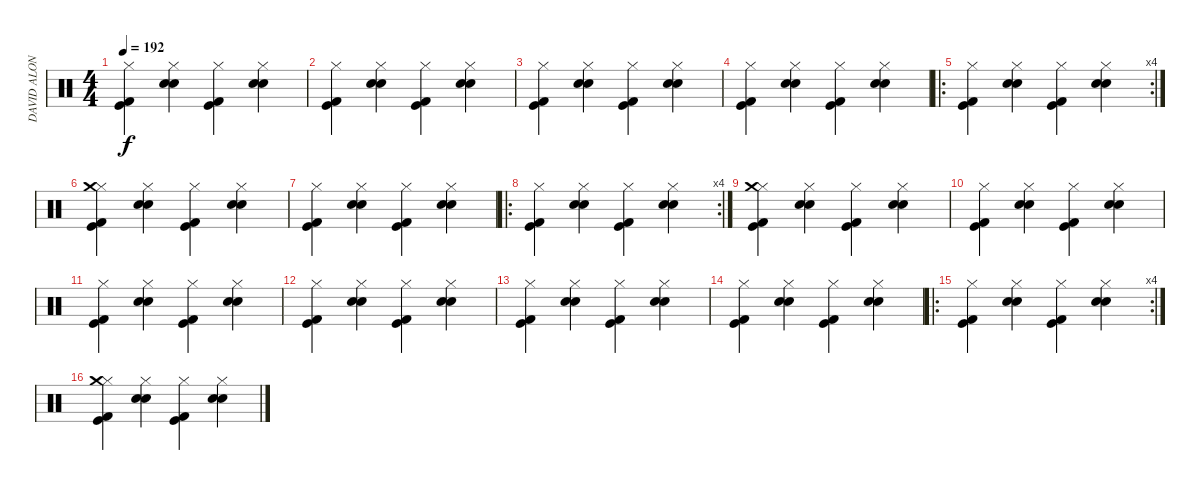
\track ("DAVID ALONSO" "DAVID ALON") {instrument percussion}
\staff {score}
\articulation defaults
\ts (4 4)
\tempo 192
\clef neutral
\ks c
("Kick (hit)" "Kick (hit) 2" "Hi-Hat (closed)").4{dy f} ("Electric Snare (hit)" "Snare (hit) 2" "Hi-Hat (closed)").4 ("Kick (hit)" "Kick (hit) 2" "Hi-Hat (closed)").4 ("Electric Snare (hit)" "Snare (hit) 2" "Hi-Hat (closed)").4 |
("Kick (hit)" "Kick (hit) 2" "Hi-Hat (closed)").4 ("Electric Snare (hit)" "Snare (hit) 2" "Hi-Hat (closed)").4 ("Kick (hit)" "Kick (hit) 2" "Hi-Hat (closed)").4 ("Electric Snare (hit)" "Snare (hit) 2" "Hi-Hat (closed)").4 |
("Kick (hit)" "Kick (hit) 2" "Hi-Hat (closed)").4 ("Electric Snare (hit)" "Snare (hit) 2" "Hi-Hat (closed)").4 ("Kick (hit)" "Kick (hit) 2" "Hi-Hat (closed)").4 ("Electric Snare (hit)" "Snare (hit) 2" "Hi-Hat (closed)").4 |
("Kick (hit)" "Kick (hit) 2" "Hi-Hat (closed)").4 ("Electric Snare (hit)" "Snare (hit) 2" "Hi-Hat (closed)").4 ("Kick (hit)" "Kick (hit) 2" "Hi-Hat (closed)").4 ("Electric Snare (hit)" "Snare (hit) 2" "Hi-Hat (closed)").4 |
\ro
\rc 4
("Kick (hit)" "Kick (hit) 2" "Hi-Hat (closed)").4 ("Electric Snare (hit)" "Snare (hit) 2" "Hi-Hat (closed)").4 ("Kick (hit)" "Kick (hit) 2" "Hi-Hat (closed)").4 ("Electric Snare (hit)" "Snare (hit) 2" "Hi-Hat (closed)").4 |
("Kick (hit)" "Kick (hit) 2" "Hi-Hat (closed)" "Crash medium (hit)").4 ("Electric Snare (hit)" "Snare (hit) 2" "Hi-Hat (closed)").4 ("Kick (hit)" "Kick (hit) 2" "Hi-Hat (closed)").4 ("Electric Snare (hit)" "Snare (hit) 2" "Hi-Hat (closed)").4 |
("Kick (hit)" "Kick (hit) 2" "Hi-Hat (closed)").4 ("Electric Snare (hit)" "Snare (hit) 2" "Hi-Hat (closed)").4 ("Kick (hit)" "Kick (hit) 2" "Hi-Hat (closed)").4 ("Electric Snare (hit)" "Snare (hit) 2" "Hi-Hat (closed)").4 |
\ro
\rc 4
("Kick (hit)" "Kick (hit) 2" "Hi-Hat (closed)").4 ("Electric Snare (hit)" "Snare (hit) 2" "Hi-Hat (closed)").4 ("Kick (hit)" "Kick (hit) 2" "Hi-Hat (closed)").4 ("Electric Snare (hit)" "Snare (hit) 2" "Hi-Hat (closed)").4 |
("Kick (hit)" "Kick (hit) 2" "Hi-Hat (closed)" "Crash medium (hit)").4 ("Electric Snare (hit)" "Snare (hit) 2" "Hi-Hat (closed)").4 ("Kick (hit)" "Kick (hit) 2" "Hi-Hat (closed)").4 ("Electric Snare (hit)" "Snare (hit) 2" "Hi-Hat (closed)").4 |
("Kick (hit)" "Kick (hit) 2" "Hi-Hat (closed)").4 ("Electric Snare (hit)" "Snare (hit) 2" "Hi-Hat (closed)").4 ("Kick (hit)" "Kick (hit) 2" "Hi-Hat (closed)").4 ("Electric Snare (hit)" "Snare (hit) 2" "Hi-Hat (closed)").4 |
("Kick (hit)" "Kick (hit) 2" "Hi-Hat (closed)").4 ("Electric Snare (hit)" "Snare (hit) 2" "Hi-Hat (closed)").4 ("Kick (hit)" "Kick (hit) 2" "Hi-Hat (closed)").4 ("Electric Snare (hit)" "Snare (hit) 2" "Hi-Hat (closed)").4 |
("Kick (hit)" "Kick (hit) 2" "Hi-Hat (closed)").4 ("Electric Snare (hit)" "Snare (hit) 2" "Hi-Hat (closed)").4 ("Kick (hit)" "Kick (hit) 2" "Hi-Hat (closed)").4 ("Electric Snare (hit)" "Snare (hit) 2" "Hi-Hat (closed)").4 |
("Kick (hit)" "Kick (hit) 2" "Hi-Hat (closed)").4 ("Electric Snare (hit)" "Snare (hit) 2" "Hi-Hat (closed)").4 ("Kick (hit)" "Kick (hit) 2" "Hi-Hat (closed)").4 ("Electric Snare (hit)" "Snare (hit) 2" "Hi-Hat (closed)").4 |
("Kick (hit)" "Kick (hit) 2" "Hi-Hat (closed)").4 ("Electric Snare (hit)" "Snare (hit) 2" "Hi-Hat (closed)").4 ("Kick (hit)" "Kick (hit) 2" "Hi-Hat (closed)").4 ("Electric Snare (hit)" "Snare (hit) 2" "Hi-Hat (closed)").4 |
\ro
\rc 4
("Kick (hit)" "Kick (hit) 2" "Hi-Hat (closed)").4 ("Electric Snare (hit)" "Snare (hit) 2" "Hi-Hat (closed)").4 ("Kick (hit)" "Kick (hit) 2" "Hi-Hat (closed)").4 ("Electric Snare (hit)" "Snare (hit) 2" "Hi-Hat (closed)").4 |
("Kick (hit)" "Kick (hit) 2" "Hi-Hat (closed)" "Crash medium (hit)").4 ("Electric Snare (hit)" "Snare (hit) 2" "Hi-Hat (closed)").4 ("Kick (hit)" "Kick (hit) 2" "Hi-Hat (closed)").4 ("Electric Snare (hit)" "Snare (hit) 2" "Hi-Hat (closed)").4
